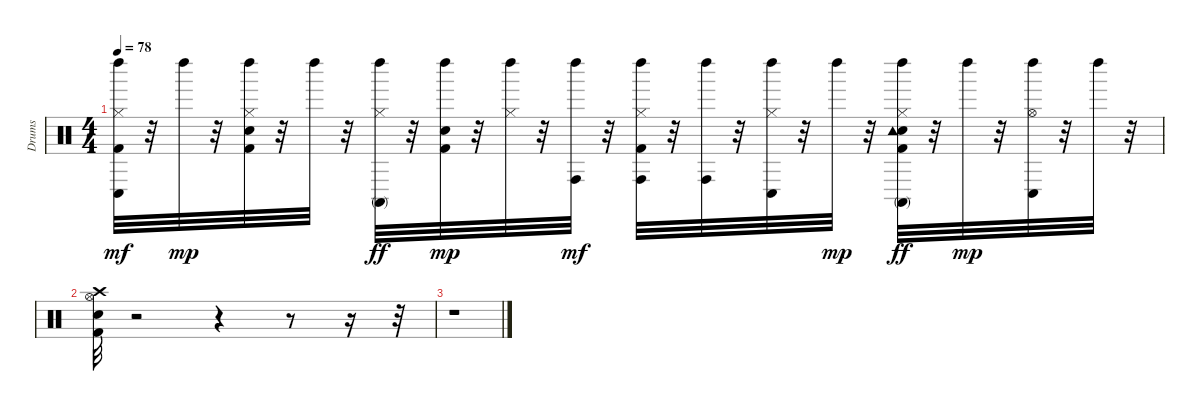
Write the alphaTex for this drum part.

\track ("Drums               " "Drums     ") {instrument percussion}
\staff {score}
\articulation defaults
\ts (4 4)
\tempo 78
\clef neutral
\ks c
("Kick (hit) 2" "Hi-Hat (closed)" "Left Maraca (hit)" "Conga low (hit)").32{dy mf} r.32 "Left Maraca (hit)".32{dy mp} r.32 ("Kick (hit) 2" "Snare (hit) 2" "Hi-Hat (closed)" "Left Maraca (hit)").32 r.32 "Left Maraca (hit)".32 r.32 ("Hi-Hat (closed)" "Left Maraca (hit)" "Conga high (mute)").32{dy ff} r.32 ("Kick (hit) 2" "Snare (hit) 2" "Left Maraca (hit)").32{dy mp} r.32 ("Hi-Hat (closed)" "Left Maraca (hit)").32 r.32 ("Left Maraca (hit)" "Conga high (hit)").32{dy mf} r.32 ("Kick (hit) 2" "Hi-Hat (closed)" "Left Maraca (hit)" "Conga high (hit)").32 r.32 ("Left Maraca (hit)" "Conga high (hit)").32 r.32 ("Hi-Hat (closed)" "Left Maraca (hit)" "Conga low (hit)").32 r.32 "Left Maraca (hit)".32{dy mp} r.32 ("Kick (hit) 2" "Snare (hit) 2" "Hi-Hat (closed)" "Left Maraca (hit)" "Conga high (mute)" "Tambourine (hit)").32{dy ff} r.32 "Left Maraca (hit)".32{dy mp} r.32 ("Hi-Hat (open)" "Left Maraca (hit)" "Conga low (hit)").32 r.32 "Left Maraca (hit)".32 r.32 |
("Kick (hit) 2" "Snare (hit) 2" "Hi-Hat (open)" "Crash high (hit)").32 r.2 r.4 r.8 r.16 r.32 |
r.1
